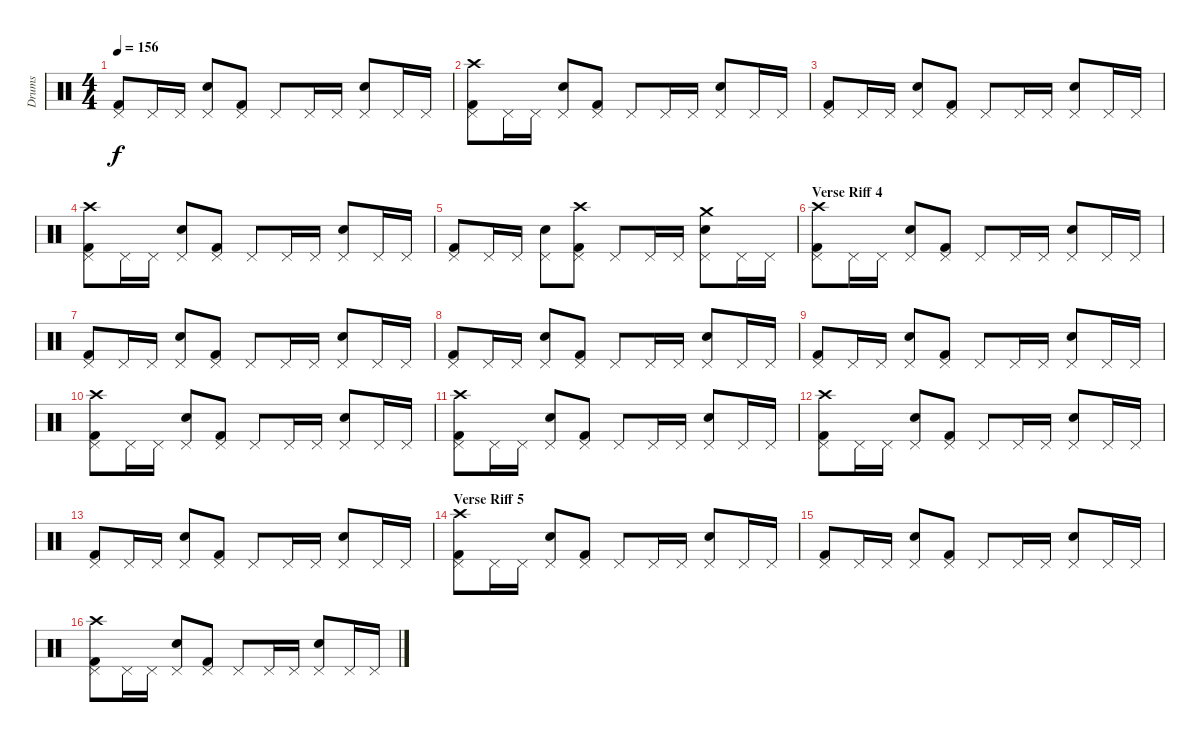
\track ("Drums" "Drums") {instrument percussion}
\staff {score}
\articulation defaults
\ts (4 4)
\tempo 156
\clef neutral
\ks c
("Kick (hit) 2" "Pedal Hi-Hat (hit)").8{dy f} "Pedal Hi-Hat (hit)".16 "Pedal Hi-Hat (hit)".16 ("Snare (hit) 2" "Pedal Hi-Hat (hit)").8 ("Kick (hit) 2" "Pedal Hi-Hat (hit)").8 "Pedal Hi-Hat (hit)".8 "Pedal Hi-Hat (hit)".16 "Pedal Hi-Hat (hit)".16 ("Snare (hit) 2" "Pedal Hi-Hat (hit)").8 "Pedal Hi-Hat (hit)".16 "Pedal Hi-Hat (hit)".16 |
("Kick (hit) 2" "Pedal Hi-Hat (hit)" "Crash high (hit)").8 "Pedal Hi-Hat (hit)".16 "Pedal Hi-Hat (hit)".16 ("Snare (hit) 2" "Pedal Hi-Hat (hit)").8 ("Kick (hit) 2" "Pedal Hi-Hat (hit)").8 "Pedal Hi-Hat (hit)".8 "Pedal Hi-Hat (hit)".16 "Pedal Hi-Hat (hit)".16 ("Snare (hit) 2" "Pedal Hi-Hat (hit)").8 "Pedal Hi-Hat (hit)".16 "Pedal Hi-Hat (hit)".16 |
("Kick (hit) 2" "Pedal Hi-Hat (hit)").8 "Pedal Hi-Hat (hit)".16 "Pedal Hi-Hat (hit)".16 ("Snare (hit) 2" "Pedal Hi-Hat (hit)").8 ("Kick (hit) 2" "Pedal Hi-Hat (hit)").8 "Pedal Hi-Hat (hit)".8 "Pedal Hi-Hat (hit)".16 "Pedal Hi-Hat (hit)".16 ("Snare (hit) 2" "Pedal Hi-Hat (hit)").8 "Pedal Hi-Hat (hit)".16 "Pedal Hi-Hat (hit)".16 |
("Kick (hit) 2" "Pedal Hi-Hat (hit)" "Crash high (hit)").8 "Pedal Hi-Hat (hit)".16 "Pedal Hi-Hat (hit)".16 ("Snare (hit) 2" "Pedal Hi-Hat (hit)").8 ("Kick (hit) 2" "Pedal Hi-Hat (hit)").8 "Pedal Hi-Hat (hit)".8 "Pedal Hi-Hat (hit)".16 "Pedal Hi-Hat (hit)".16 ("Snare (hit) 2" "Pedal Hi-Hat (hit)").8 "Pedal Hi-Hat (hit)".16 "Pedal Hi-Hat (hit)".16 |
("Kick (hit) 2" "Pedal Hi-Hat (hit)").8 "Pedal Hi-Hat (hit)".16 "Pedal Hi-Hat (hit)".16 ("Snare (hit) 2" "Pedal Hi-Hat (hit)").8 ("Kick (hit) 2" "Pedal Hi-Hat (hit)" "Crash high (hit)").8 "Pedal Hi-Hat (hit)".8 "Pedal Hi-Hat (hit)".16 "Pedal Hi-Hat (hit)".16 ("Snare (hit) 2" "Pedal Hi-Hat (hit)" "Crash medium (hit)").8 "Pedal Hi-Hat (hit)".16 "Pedal Hi-Hat (hit)".16 |
\section ("" "Verse Riff 4")
("Kick (hit) 2" "Pedal Hi-Hat (hit)" "Crash high (hit)").8 "Pedal Hi-Hat (hit)".16 "Pedal Hi-Hat (hit)".16 ("Snare (hit) 2" "Pedal Hi-Hat (hit)").8 ("Kick (hit) 2" "Pedal Hi-Hat (hit)").8 "Pedal Hi-Hat (hit)".8 "Pedal Hi-Hat (hit)".16 "Pedal Hi-Hat (hit)".16 ("Snare (hit) 2" "Pedal Hi-Hat (hit)").8 "Pedal Hi-Hat (hit)".16 "Pedal Hi-Hat (hit)".16 |
("Kick (hit) 2" "Pedal Hi-Hat (hit)").8 "Pedal Hi-Hat (hit)".16 "Pedal Hi-Hat (hit)".16 ("Snare (hit) 2" "Pedal Hi-Hat (hit)").8 ("Kick (hit) 2" "Pedal Hi-Hat (hit)").8 "Pedal Hi-Hat (hit)".8 "Pedal Hi-Hat (hit)".16 "Pedal Hi-Hat (hit)".16 ("Snare (hit) 2" "Pedal Hi-Hat (hit)").8 "Pedal Hi-Hat (hit)".16 "Pedal Hi-Hat (hit)".16 |
("Kick (hit) 2" "Pedal Hi-Hat (hit)").8 "Pedal Hi-Hat (hit)".16 "Pedal Hi-Hat (hit)".16 ("Snare (hit) 2" "Pedal Hi-Hat (hit)").8 ("Kick (hit) 2" "Pedal Hi-Hat (hit)").8 "Pedal Hi-Hat (hit)".8 "Pedal Hi-Hat (hit)".16 "Pedal Hi-Hat (hit)".16 ("Snare (hit) 2" "Pedal Hi-Hat (hit)").8 "Pedal Hi-Hat (hit)".16 "Pedal Hi-Hat (hit)".16 |
("Kick (hit) 2" "Pedal Hi-Hat (hit)").8 "Pedal Hi-Hat (hit)".16 "Pedal Hi-Hat (hit)".16 ("Snare (hit) 2" "Pedal Hi-Hat (hit)").8 ("Kick (hit) 2" "Pedal Hi-Hat (hit)").8 "Pedal Hi-Hat (hit)".8 "Pedal Hi-Hat (hit)".16 "Pedal Hi-Hat (hit)".16 ("Snare (hit) 2" "Pedal Hi-Hat (hit)").8 "Pedal Hi-Hat (hit)".16 "Pedal Hi-Hat (hit)".16 |
("Kick (hit) 2" "Pedal Hi-Hat (hit)" "Crash high (hit)").8 "Pedal Hi-Hat (hit)".16 "Pedal Hi-Hat (hit)".16 ("Snare (hit) 2" "Pedal Hi-Hat (hit)").8 ("Kick (hit) 2" "Pedal Hi-Hat (hit)").8 "Pedal Hi-Hat (hit)".8 "Pedal Hi-Hat (hit)".16 "Pedal Hi-Hat (hit)".16 ("Snare (hit) 2" "Pedal Hi-Hat (hit)").8 "Pedal Hi-Hat (hit)".16 "Pedal Hi-Hat (hit)".16 |
("Kick (hit) 2" "Pedal Hi-Hat (hit)" "Crash high (hit)").8 "Pedal Hi-Hat (hit)".16 "Pedal Hi-Hat (hit)".16 ("Snare (hit) 2" "Pedal Hi-Hat (hit)").8 ("Kick (hit) 2" "Pedal Hi-Hat (hit)").8 "Pedal Hi-Hat (hit)".8 "Pedal Hi-Hat (hit)".16 "Pedal Hi-Hat (hit)".16 ("Snare (hit) 2" "Pedal Hi-Hat (hit)").8 "Pedal Hi-Hat (hit)".16 "Pedal Hi-Hat (hit)".16 |
("Kick (hit) 2" "Pedal Hi-Hat (hit)" "Crash high (hit)").8 "Pedal Hi-Hat (hit)".16 "Pedal Hi-Hat (hit)".16 ("Snare (hit) 2" "Pedal Hi-Hat (hit)").8 ("Kick (hit) 2" "Pedal Hi-Hat (hit)").8 "Pedal Hi-Hat (hit)".8 "Pedal Hi-Hat (hit)".16 "Pedal Hi-Hat (hit)".16 ("Snare (hit) 2" "Pedal Hi-Hat (hit)").8 "Pedal Hi-Hat (hit)".16 "Pedal Hi-Hat (hit)".16 |
("Kick (hit) 2" "Pedal Hi-Hat (hit)").8 "Pedal Hi-Hat (hit)".16 "Pedal Hi-Hat (hit)".16 ("Snare (hit) 2" "Pedal Hi-Hat (hit)").8 ("Kick (hit) 2" "Pedal Hi-Hat (hit)").8 "Pedal Hi-Hat (hit)".8 "Pedal Hi-Hat (hit)".16 "Pedal Hi-Hat (hit)".16 ("Snare (hit) 2" "Pedal Hi-Hat (hit)").8 "Pedal Hi-Hat (hit)".16 "Pedal Hi-Hat (hit)".16 |
\section ("" "Verse Riff 5")
("Kick (hit) 2" "Pedal Hi-Hat (hit)" "Crash high (hit)").8 "Pedal Hi-Hat (hit)".16 "Pedal Hi-Hat (hit)".16 ("Snare (hit) 2" "Pedal Hi-Hat (hit)").8 ("Kick (hit) 2" "Pedal Hi-Hat (hit)").8 "Pedal Hi-Hat (hit)".8 "Pedal Hi-Hat (hit)".16 "Pedal Hi-Hat (hit)".16 ("Snare (hit) 2" "Pedal Hi-Hat (hit)").8 "Pedal Hi-Hat (hit)".16 "Pedal Hi-Hat (hit)".16 |
("Kick (hit) 2" "Pedal Hi-Hat (hit)").8 "Pedal Hi-Hat (hit)".16 "Pedal Hi-Hat (hit)".16 ("Snare (hit) 2" "Pedal Hi-Hat (hit)").8 ("Kick (hit) 2" "Pedal Hi-Hat (hit)").8 "Pedal Hi-Hat (hit)".8 "Pedal Hi-Hat (hit)".16 "Pedal Hi-Hat (hit)".16 ("Snare (hit) 2" "Pedal Hi-Hat (hit)").8 "Pedal Hi-Hat (hit)".16 "Pedal Hi-Hat (hit)".16 |
("Kick (hit) 2" "Pedal Hi-Hat (hit)" "Crash high (hit)").8 "Pedal Hi-Hat (hit)".16 "Pedal Hi-Hat (hit)".16 ("Snare (hit) 2" "Pedal Hi-Hat (hit)").8 ("Kick (hit) 2" "Pedal Hi-Hat (hit)").8 "Pedal Hi-Hat (hit)".8 "Pedal Hi-Hat (hit)".16 "Pedal Hi-Hat (hit)".16 ("Snare (hit) 2" "Pedal Hi-Hat (hit)").8 "Pedal Hi-Hat (hit)".16 "Pedal Hi-Hat (hit)".16
